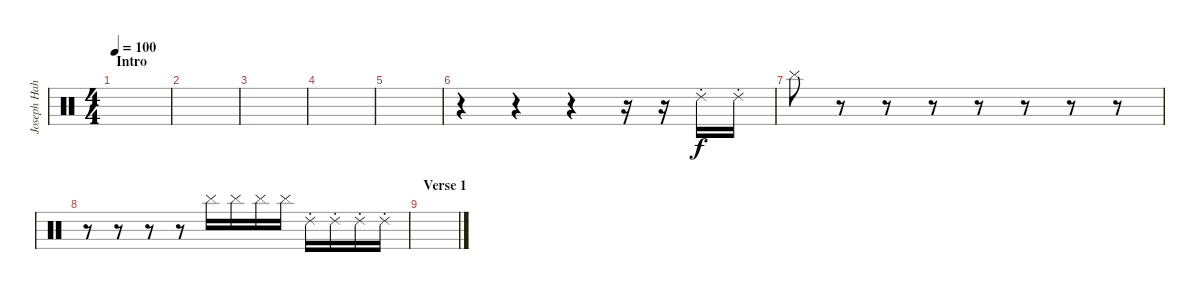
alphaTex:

\track ("Joseph Hahn (Sampler 3)" "Joseph Hah") {instrument percussion}
\staff {score}
\articulation defaults
\ts (4 4)
\section ("" "Intro")
\tempo 100
\clef neutral
\ks c
|
|
|
|
|
r.4 r.4 r.4 r.16 r.16 "Ride (choke) 2".16 "Ride (choke) 2".16 |
"Cymbal (hit)".8 r.8 r.8 r.8 r.8 r.8 r.8 r.8 |
r.8 r.8 r.8 r.8 "Cymbal (hit)".16 "Cymbal (hit)".16 "Cymbal (hit)".16 "Cymbal (hit)".16 "Ride (choke) 2".16 "Ride (choke) 2".16 "Ride (choke) 2".16 "Ride (choke) 2".16 |
\section ("" "Verse 1")
